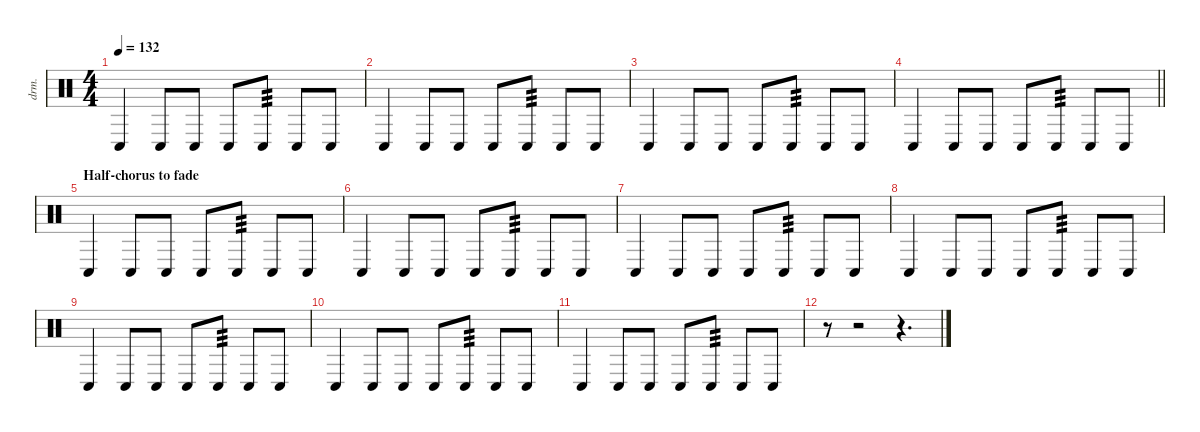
\defaultSystemsLayout 4
\hideDynamics
\bracketExtendMode nobrackets
\otherSystemsTrackNameOrientation horizontal
\track ("Percussion" "drm.") {instrument percussion}
\staff {score}
\articulation defaults
\ts (4 4)
\tempo 132
\clef neutral
\ks c "Conga low (hit)".4{dy f beam Up} "Conga low (hit)".8{beam Up} "Conga low (hit)".8{beam Up} "Conga low (hit)".8{beam Up} "Conga low (hit)".8{tp 3 beam Up} "Conga low (hit)".8{beam Up} "Conga low (hit)".8{beam Up}
|
"Conga low (hit)".4{beam Up} "Conga low (hit)".8{beam Up} "Conga low (hit)".8{beam Up} "Conga low (hit)".8{beam Up} "Conga low (hit)".8{tp 3 beam Up} "Conga low (hit)".8{beam Up} "Conga low (hit)".8{beam Up} |
"Conga low (hit)".4{beam Up} "Conga low (hit)".8{beam Up} "Conga low (hit)".8{beam Up} "Conga low (hit)".8{beam Up} "Conga low (hit)".8{tp 3 beam Up} "Conga low (hit)".8{beam Up} "Conga low (hit)".8{beam Up} |
\barLineRight lightlight "Conga low (hit)".4{beam Up} "Conga low (hit)".8{beam Up} "Conga low (hit)".8{beam Up} "Conga low (hit)".8{beam Up} "Conga low (hit)".8{tp 3 beam Up} "Conga low (hit)".8{beam Up} "Conga low (hit)".8{beam Up}
|
\section ("" "Half-chorus to fade")
"Conga low (hit)".4{beam Up} "Conga low (hit)".8{beam Up} "Conga low (hit)".8{beam Up} "Conga low (hit)".8{beam Up} "Conga low (hit)".8{tp 3 beam Up} "Conga low (hit)".8{beam Up} "Conga low (hit)".8{beam Up} |
"Conga low (hit)".4{beam Up} "Conga low (hit)".8{beam Up} "Conga low (hit)".8{beam Up} "Conga low (hit)".8{beam Up} "Conga low (hit)".8{tp 3 beam Up} "Conga low (hit)".8{beam Up} "Conga low (hit)".8{beam Up} |
"Conga low (hit)".4{beam Up} "Conga low (hit)".8{beam Up} "Conga low (hit)".8{beam Up} "Conga low (hit)".8{beam Up} "Conga low (hit)".8{tp 3 beam Up} "Conga low (hit)".8{beam Up} "Conga low (hit)".8{beam Up} |
"Conga low (hit)".4{beam Up} "Conga low (hit)".8{beam Up} "Conga low (hit)".8{beam Up} "Conga low (hit)".8{beam Up} "Conga low (hit)".8{tp 3 beam Up} "Conga low (hit)".8{beam Up} "Conga low (hit)".8{beam Up} |
"Conga low (hit)".4{beam Up} "Conga low (hit)".8{beam Up} "Conga low (hit)".8{beam Up} "Conga low (hit)".8{beam Up} "Conga low (hit)".8{tp 3 beam Up} "Conga low (hit)".8{beam Up} "Conga low (hit)".8{beam Up} |
"Conga low (hit)".4{beam Up} "Conga low (hit)".8{beam Up} "Conga low (hit)".8{beam Up} "Conga low (hit)".8{beam Up} "Conga low (hit)".8{tp 3 beam Up} "Conga low (hit)".8{beam Up} "Conga low (hit)".8{beam Up} |
"Conga low (hit)".4{beam Up} "Conga low (hit)".8{beam Up} "Conga low (hit)".8{beam Up} "Conga low (hit)".8{beam Up} "Conga low (hit)".8{tp 3 beam Up} "Conga low (hit)".8{beam Up} "Conga low (hit)".8{beam Up} |
r.8{beam Down} r.2{beam Down} r.4{d beam Down}
